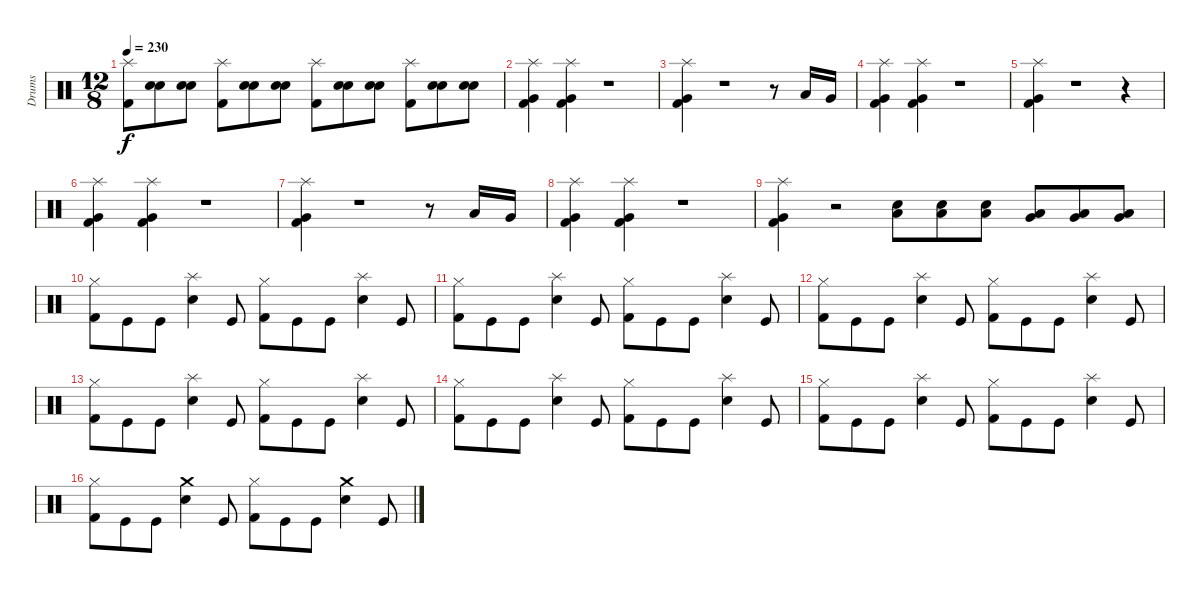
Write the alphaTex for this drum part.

\track ("Drums" "Drums") {instrument percussion}
\staff {score}
\articulation defaults
\ts (12 8)
\tempo 230
\clef neutral
\ks c
("Splash (hit)" "Kick (hit) 2").8{dy f} ("Electric Snare (hit)" "Snare (hit) 2").8 ("Electric Snare (hit)" "Snare (hit) 2").8 ("Splash (hit)" "Kick (hit) 2").8 ("Electric Snare (hit)" "Snare (hit) 2").8 ("Electric Snare (hit)" "Snare (hit) 2").8 ("Splash (hit)" "Kick (hit) 2").8 ("Electric Snare (hit)" "Snare (hit) 2").8 ("Electric Snare (hit)" "Snare (hit) 2").8 ("Splash (hit)" "Kick (hit) 2").8 ("Snare (hit) 2" "Electric Snare (hit)").8 ("Snare (hit) 2" "Electric Snare (hit)").8 |
("Very Low Tom (hit)" "Splash (hit)" "Kick (hit) 2").4 ("Very Low Tom (hit)" "Splash (hit)" "Kick (hit) 2").4 r.1 |
("Splash (hit)" "Very Low Tom (hit)" "Kick (hit) 2").4 r.1 r.8 "Low Floor Tom (hit)".16 "Very Low Tom (hit)".16 |
("Splash (hit)" "Very Low Tom (hit)" "Kick (hit) 2").4 ("Very Low Tom (hit)" "Kick (hit) 2" "Splash (hit)").4 r.1 |
("Splash (hit)" "Very Low Tom (hit)" "Kick (hit) 2").4 r.1 r.4 |
("Splash (hit)" "Very Low Tom (hit)" "Kick (hit) 2").4 ("Splash (hit)" "Very Low Tom (hit)" "Kick (hit) 2").4 r.1 |
("Very Low Tom (hit)" "Splash (hit)" "Kick (hit) 2").4 r.1 r.8 "Low Floor Tom (hit)".16 "Very Low Tom (hit)".16 |
("Splash (hit)" "Very Low Tom (hit)" "Kick (hit) 2").4 ("Splash (hit)" "Very Low Tom (hit)" "Kick (hit) 2").4 r.1 |
("Splash (hit)" "Very Low Tom (hit)" "Kick (hit) 2").4 r.2 ("Low Tom (hit)" "Snare (hit) 2").8 ("Low Tom (hit)" "Snare (hit) 2").8 ("Snare (hit) 2" "Low Tom (hit)").8 ("Very Low Tom (hit)" "Low Floor Tom (hit)").8 ("Very Low Tom (hit)" "Low Floor Tom (hit)").8 ("Very Low Tom (hit)" "Low Floor Tom (hit)").8 |
("Hi-Hat (closed)" "Kick (hit) 2").8 "Kick (hit)".8 "Kick (hit)".8 ("Splash (hit)" "Snare (hit) 2").4 "Kick (hit)".8 ("Hi-Hat (closed)" "Kick (hit) 2").8 "Kick (hit)".8 "Kick (hit)".8 ("Splash (hit)" "Snare (hit) 2").4 "Kick (hit)".8 |
("Hi-Hat (closed)" "Kick (hit) 2").8 "Kick (hit)".8 "Kick (hit)".8 ("Splash (hit)" "Snare (hit) 2").4 "Kick (hit)".8 ("Hi-Hat (closed)" "Kick (hit) 2").8 "Kick (hit)".8 "Kick (hit)".8 ("Splash (hit)" "Snare (hit) 2").4 "Kick (hit)".8 |
("Hi-Hat (closed)" "Kick (hit) 2").8 "Kick (hit)".8 "Kick (hit)".8 ("Splash (hit)" "Snare (hit) 2").4 "Kick (hit)".8 ("Hi-Hat (closed)" "Kick (hit) 2").8 "Kick (hit)".8 "Kick (hit)".8 ("Splash (hit)" "Snare (hit) 2").4 "Kick (hit)".8 |
("Hi-Hat (closed)" "Kick (hit) 2").8 "Kick (hit)".8 "Kick (hit)".8 ("Splash (hit)" "Snare (hit) 2").4 "Kick (hit)".8 ("Hi-Hat (closed)" "Kick (hit) 2").8 "Kick (hit)".8 "Kick (hit)".8 ("Splash (hit)" "Snare (hit) 2").4 "Kick (hit)".8 |
("Hi-Hat (closed)" "Kick (hit) 2").8 "Kick (hit)".8 "Kick (hit)".8 ("Splash (hit)" "Snare (hit) 2").4 "Kick (hit)".8 ("Hi-Hat (closed)" "Kick (hit) 2").8 "Kick (hit)".8 "Kick (hit)".8 ("Splash (hit)" "Snare (hit) 2").4 "Kick (hit)".8 |
("Hi-Hat (closed)" "Kick (hit) 2").8 "Kick (hit)".8 "Kick (hit)".8 ("Splash (hit)" "Snare (hit) 2").4 "Kick (hit)".8 ("Hi-Hat (closed)" "Kick (hit) 2").8 "Kick (hit)".8 "Kick (hit)".8 ("Splash (hit)" "Snare (hit) 2").4 "Kick (hit)".8 |
("Hi-Hat (closed)" "Kick (hit) 2").8 "Kick (hit)".8 "Kick (hit)".8 ("Crash medium (hit)" "Snare (hit) 2").4 "Kick (hit)".8 ("Hi-Hat (closed)" "Kick (hit) 2").8 "Kick (hit)".8 "Kick (hit)".8 ("Crash medium (hit)" "Snare (hit) 2").4 "Kick (hit)".8
